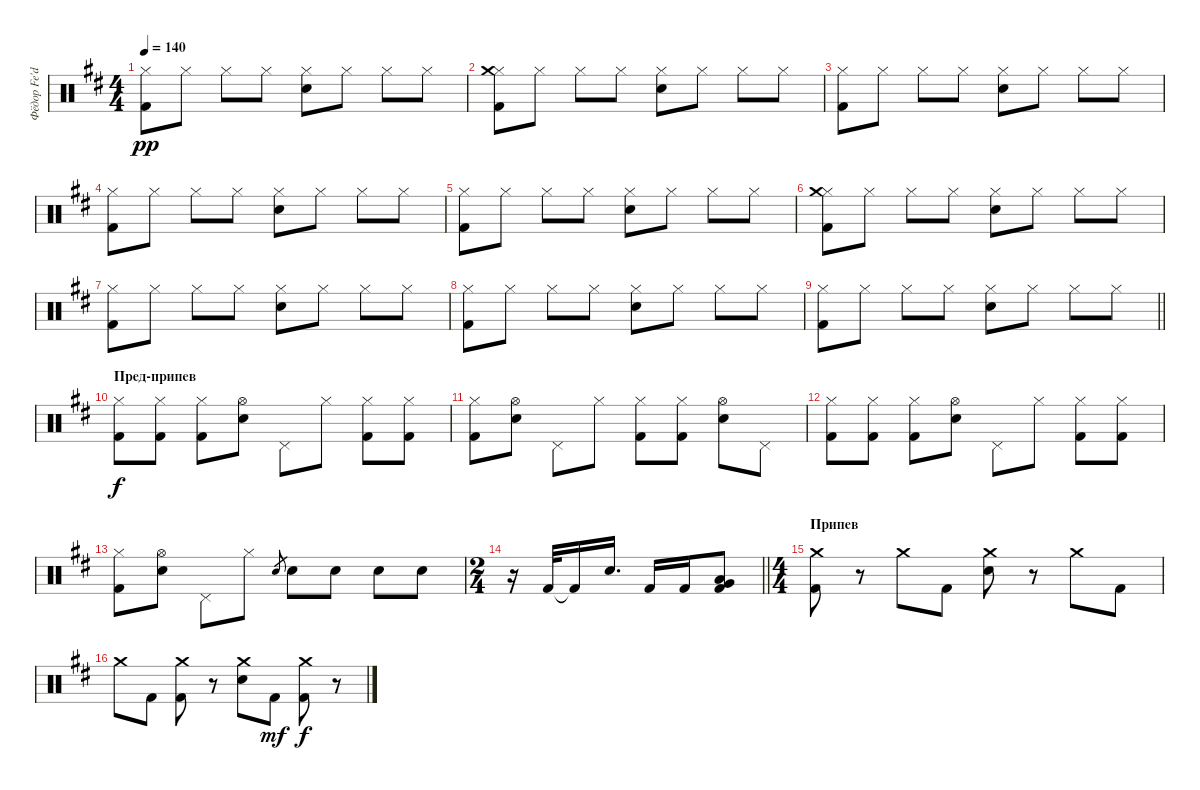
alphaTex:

\track ("Фёдор Fe'dor Локшин" "Фёдор Fe'd") {instrument percussion}
\staff {score}
\articulation defaults
\ts (4 4)
\tempo 140
\clef neutral
\ks bminor
("Hi-Hat (closed)" "Kick (hit) 2").8{dy pp} "Hi-Hat (closed)".8 "Hi-Hat (closed)".8 "Hi-Hat (closed)".8 ("Hi-Hat (closed)" "Snare (hit) 2").8 "Hi-Hat (closed)".8 "Hi-Hat (closed)".8 "Hi-Hat (closed)".8 |
("Hi-Hat (closed)" "Crash medium (hit)" "Kick (hit) 2").8 "Hi-Hat (closed)".8 "Hi-Hat (closed)".8 "Hi-Hat (closed)".8 ("Hi-Hat (closed)" "Snare (hit) 2").8 "Hi-Hat (closed)".8 "Hi-Hat (closed)".8 "Hi-Hat (closed)".8 |
("Hi-Hat (closed)" "Kick (hit) 2").8 "Hi-Hat (closed)".8 "Hi-Hat (closed)".8 "Hi-Hat (closed)".8 ("Hi-Hat (closed)" "Snare (hit) 2").8 "Hi-Hat (closed)".8 "Hi-Hat (closed)".8 "Hi-Hat (closed)".8 |
("Hi-Hat (closed)" "Kick (hit) 2").8 "Hi-Hat (closed)".8 "Hi-Hat (closed)".8 "Hi-Hat (closed)".8 ("Hi-Hat (closed)" "Snare (hit) 2").8 "Hi-Hat (closed)".8 "Hi-Hat (closed)".8 "Hi-Hat (closed)".8 |
("Hi-Hat (closed)" "Kick (hit) 2").8 "Hi-Hat (closed)".8 "Hi-Hat (closed)".8 "Hi-Hat (closed)".8 ("Hi-Hat (closed)" "Snare (hit) 2").8 "Hi-Hat (closed)".8 "Hi-Hat (closed)".8 "Hi-Hat (closed)".8 |
("Hi-Hat (closed)" "Crash medium (hit)" "Kick (hit) 2").8 "Hi-Hat (closed)".8 "Hi-Hat (closed)".8 "Hi-Hat (closed)".8 ("Hi-Hat (closed)" "Snare (hit) 2").8 "Hi-Hat (closed)".8 "Hi-Hat (closed)".8 "Hi-Hat (closed)".8 |
("Hi-Hat (closed)" "Kick (hit) 2").8 "Hi-Hat (closed)".8 "Hi-Hat (closed)".8 "Hi-Hat (closed)".8 ("Hi-Hat (closed)" "Snare (hit) 2").8 "Hi-Hat (closed)".8 "Hi-Hat (closed)".8 "Hi-Hat (closed)".8 |
("Hi-Hat (closed)" "Kick (hit) 2").8 "Hi-Hat (closed)".8 "Hi-Hat (closed)".8 "Hi-Hat (closed)".8 ("Hi-Hat (closed)" "Snare (hit) 2").8 "Hi-Hat (closed)".8 "Hi-Hat (closed)".8 "Hi-Hat (closed)".8 |
\barLineRight lightlight
("Hi-Hat (closed)" "Kick (hit) 2").8 "Hi-Hat (closed)".8 "Hi-Hat (closed)".8 "Hi-Hat (closed)".8 ("Hi-Hat (closed)" "Snare (hit) 2").8 "Hi-Hat (closed)".8 "Hi-Hat (closed)".8 "Hi-Hat (closed)".8 |
\section ("" "Пред-припев")
("Hi-Hat (closed)" "Kick (hit) 2").8{dy f} ("Hi-Hat (closed)" "Kick (hit) 2").8 ("Hi-Hat (closed)" "Kick (hit) 2").8 ("Hi-Hat (open)" "Snare (hit) 2").8 "Pedal Hi-Hat (hit)".8 "Hi-Hat (closed)".8 ("Hi-Hat (closed)" "Kick (hit) 2").8 ("Hi-Hat (closed)" "Kick (hit) 2").8 |
("Hi-Hat (closed)" "Kick (hit) 2").8 ("Hi-Hat (open)" "Snare (hit) 2").8 "Pedal Hi-Hat (hit)".8 "Hi-Hat (closed)".8 ("Hi-Hat (closed)" "Kick (hit) 2").8 ("Hi-Hat (closed)" "Kick (hit) 2").8 ("Hi-Hat (open)" "Snare (hit) 2").8 "Pedal Hi-Hat (hit)".8 |
("Hi-Hat (closed)" "Kick (hit) 2").8 ("Hi-Hat (closed)" "Kick (hit) 2").8 ("Hi-Hat (closed)" "Kick (hit) 2").8 ("Hi-Hat (open)" "Snare (hit) 2").8 "Pedal Hi-Hat (hit)".8 "Hi-Hat (closed)".8 ("Hi-Hat (closed)" "Kick (hit) 2").8 ("Hi-Hat (closed)" "Kick (hit) 2").8 |
("Hi-Hat (closed)" "Kick (hit) 2").8 ("Hi-Hat (open)" "Snare (hit) 2").8 "Pedal Hi-Hat (hit)".8 "Hi-Hat (closed)".8 "Snare (hit) 2".8{gr} "Snare (hit) 2".8 "Snare (hit) 2".8 "Snare (hit) 2".8 "Snare (hit) 2".8 |
\ts (2 4)
\barLineRight lightlight
r.16 "Kick (hit) 2".32 "Kick (hit) 2"{t}.16 "Snare (hit) 2".16{d} "Kick (hit) 2".16 "Kick (hit) 2".16 ("Very Low Tom (hit)" "Low Floor Tom (hit)" "Kick (hit) 2").8 |
\ts (4 4)
\section ("" "Припев")
("Crash medium (hit)" "Kick (hit) 2").8 r.8 "Crash medium (hit)".8 "Kick (hit) 2".8 ("Crash medium (hit)" "Snare (hit) 2").8 r.8 "Crash medium (hit)".8 "Kick (hit) 2".8 |
"Crash medium (hit)".8 "Kick (hit) 2".8 ("Crash medium (hit)" "Kick (hit) 2").8 r.8 ("Crash medium (hit)" "Snare (hit) 2").8 "Kick (hit) 2".8{dy mf} ("Crash medium (hit)" "Kick (hit) 2").8{dy f} r.8
